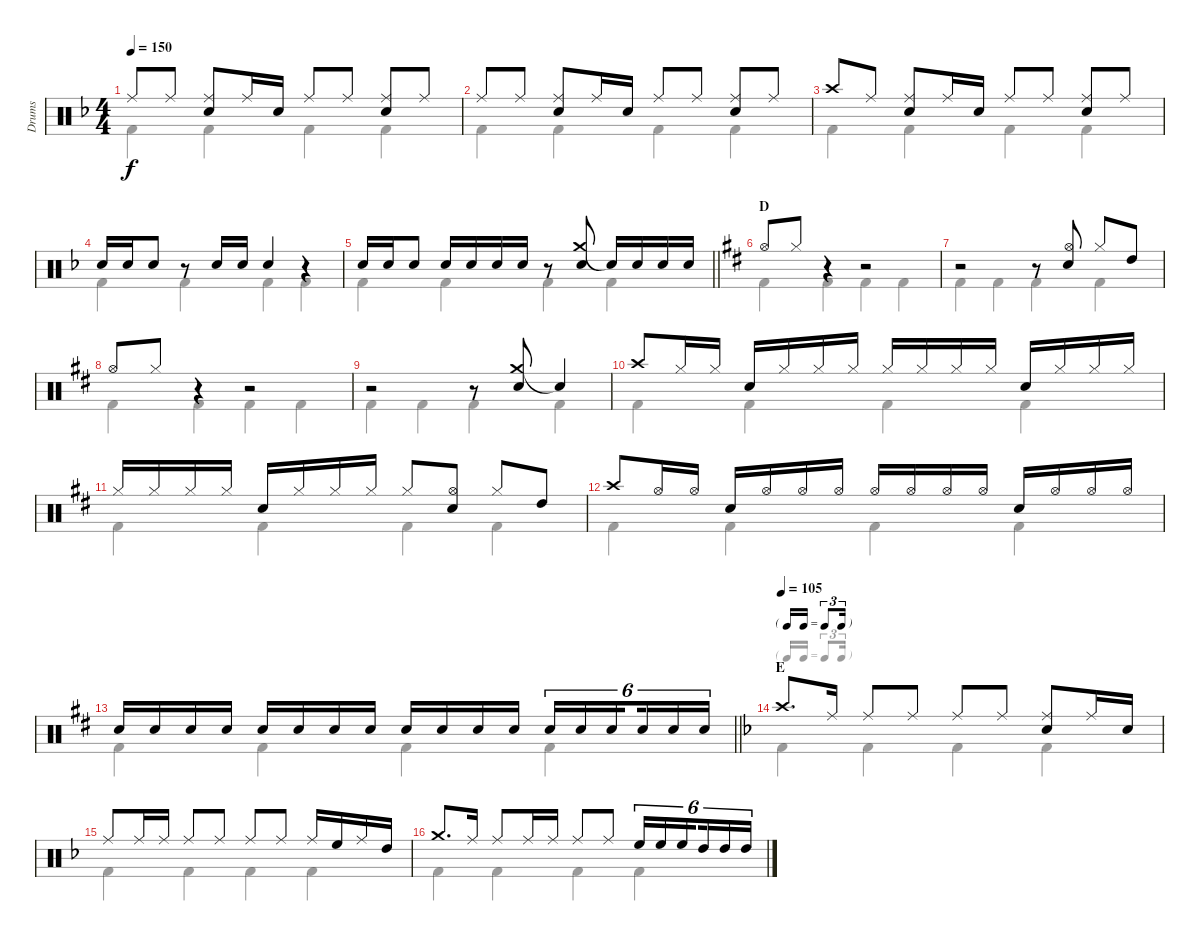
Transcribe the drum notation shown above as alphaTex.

\track ("Drums" "Drums") {instrument percussion}
\staff {score}
\articulation defaults
\voice
\ts (4 4)
\tempo 150
\clef neutral
\ks f "Ride (middle)".8{dy f} "Ride (middle)".8
("Ride (middle)" "Snare (hit) 2").8 "Ride (middle)".16 "Snare (hit) 2".16 "Ride (middle)".8 "Ride (middle)".8 ("Ride (middle)" "Snare (hit) 2").8 "Ride (middle)".8 |
"Ride (middle)".8 "Ride (middle)".8 ("Ride (middle)" "Snare (hit) 2").8 "Ride (middle)".16 "Snare (hit) 2".16 "Ride (middle)".8 "Ride (middle)".8 ("Ride (middle)" "Snare (hit) 2").8 "Ride (middle)".8 |
"Crash high (hit)".8 "Ride (middle)".8 ("Ride (middle)" "Snare (hit) 2").8 "Ride (middle)".16 "Snare (hit) 2".16 "Ride (middle)".8 "Ride (middle)".8 ("Ride (middle)" "Snare (hit) 2").8 "Ride (middle)".8 |
"Snare (hit) 2".16 "Snare (hit) 2".16 "Snare (hit) 2".8 r.8 "Snare (hit) 2".16 "Snare (hit) 2".16 "Snare (hit) 2".4 r.4 |
\barLineRight lightlight "Snare (hit) 2".16 "Snare (hit) 2".16 "Snare (hit) 2".8 "Snare (hit) 2".16 "Snare (hit) 2".16 "Snare (hit) 2".16 "Snare (hit) 2".16
r.8 ("Crash medium (hit)" "Snare (hit) 2").8 "Snare (hit)"{t}.16 "Snare (hit) 2".16 "Snare (hit) 2".16 "Snare (hit) 2".16 |
\section ("" "D")
\ks d "Hi-Hat (open)".8 "Hi-Hat (closed)".8
r.4 r.2 |
r.2 r.8 ("Hi-Hat (open)" "Snare (hit) 2").8 "Hi-Hat (closed)".8 "High Tom (hit)".8 |
"Hi-Hat (open)".8 "Hi-Hat (closed)".8 r.4 r.2 |
r.2 r.8 ("Crash medium (hit)" "Snare (hit) 2").8 "Snare (hit)"{t}.4 |
"Crash high (hit)".8 "Hi-Hat (closed)".16 "Hi-Hat (closed)".16 "Snare (hit) 2".16 "Hi-Hat (closed)".16 "Hi-Hat (closed)".16 "Hi-Hat (closed)".16 "Hi-Hat (closed)".16 "Hi-Hat (closed)".16 "Hi-Hat (closed)".16 "Hi-Hat (closed)".16 "Snare (hit) 2".16 "Hi-Hat (closed)".16 "Hi-Hat (closed)".16 "Hi-Hat (closed)".16 |
"Hi-Hat (closed)".16 "Hi-Hat (closed)".16 "Hi-Hat (closed)".16 "Hi-Hat (closed)".16 "Snare (hit) 2".16 "Hi-Hat (closed)".16 "Hi-Hat (closed)".16 "Hi-Hat (closed)".16 "Hi-Hat (closed)".8 ("Hi-Hat (open)" "Snare (hit) 2").8 "Hi-Hat (closed)".8 "High Tom (hit)".8 |
"Crash high (hit)".8 "Hi-Hat (open)".16 "Hi-Hat (open)".16 "Snare (hit) 2".16 "Hi-Hat (open)".16 "Hi-Hat (open)".16 "Hi-Hat (open)".16 "Hi-Hat (open)".16 "Hi-Hat (open)".16 "Hi-Hat (open)".16 "Hi-Hat (open)".16 "Snare (hit) 2".16 "Hi-Hat (open)".16 "Hi-Hat (open)".16 "Hi-Hat (open)".16 |
\barLineRight lightlight "Snare (hit) 2".16 "Snare (hit) 2".16 "Snare (hit) 2".16 "Snare (hit) 2".16 "Snare (hit) 2".16 "Snare (hit) 2".16 "Snare (hit) 2".16 "Snare (hit) 2".16 "Snare (hit) 2".16 "Snare (hit) 2".16 "Snare (hit) 2".16 "Snare (hit) 2".16 "Snare (hit) 2".16{tu (6 4)} "Snare (hit) 2".16{tu (6 4)} "Snare (hit) 2".16{tu (6 4) beam splitsecondary} "Snare (hit) 2".16{tu (6 4)} "Snare (hit) 2".16{tu (6 4)} "Snare (hit) 2".16{tu (6 4)}
|
\tf triplet16th
\section ("" "E")
\tempo 105
\ks f "Crash high (hit)".8{d} "Ride (middle)".16 "Ride (middle)".8 "Ride (middle)".8 "Ride (middle)".8 "Ride (middle)".8
("Ride (middle)" "Snare (hit) 2").8 "Ride (middle)".16 "Snare (hit) 2".16 |
"Ride (middle)".8 "Ride (middle)".16 "Ride (middle)".16 "Ride (middle)".8 "Ride (middle)".8 "Ride (middle)".8 "Ride (middle)".8 "Ride (middle)".16 "High Floor Tom (hit)".16 "Ride (middle)".16 "High Tom (hit)".16 |
"Crash medium (hit)".8{d} "Ride (middle)".16 "Ride (middle)".8 "Ride (middle)".16 "Ride (middle)".16 "Ride (middle)".8 "Ride (middle)".8 "High Floor Tom (hit)".16{tu (6 4)} "High Floor Tom (hit)".16{tu (6 4)} "High Floor Tom (hit)".16{tu (6 4) beam splitsecondary} "High Tom (hit)".16{tu (6 4)} "High Tom (hit)".16{tu (6 4)} "High Tom (hit)".16{tu (6 4)}
\voice
\clef neutral
\ottava regular
\simile none
\ks f "Kick (hit) 2".4{dy f} "Kick (hit) 2".4 "Kick (hit) 2".4 "Kick (hit) 2".4
|
"Kick (hit) 2".4 "Kick (hit) 2".4 "Kick (hit) 2".4 "Kick (hit) 2".4 |
"Kick (hit) 2".4 "Kick (hit) 2".4 "Kick (hit) 2".4 "Kick (hit) 2".4 |
"Kick (hit) 2".4 "Kick (hit) 2".4 "Kick (hit) 2".4 "Kick (hit) 2".4 |
\barLineRight lightlight "Kick (hit) 2".4 "Kick (hit) 2".4 "Kick (hit) 2".4 "Kick (hit) 2".4
|
\ks d "Kick (hit) 2".4 "Kick (hit) 2".4 "Kick (hit) 2".4 "Kick (hit) 2".4
|
"Kick (hit) 2".4 "Kick (hit) 2".4 "Kick (hit) 2".4 "Kick (hit) 2".4 |
"Kick (hit) 2".4 "Kick (hit) 2".4 "Kick (hit) 2".4 "Kick (hit) 2".4 |
"Kick (hit) 2".4 "Kick (hit) 2".4 "Kick (hit) 2".4 "Kick (hit) 2".4 |
"Kick (hit) 2".4 "Kick (hit) 2".4 "Kick (hit) 2".4 "Kick (hit) 2".4 |
"Kick (hit) 2".4 "Kick (hit) 2".4 "Kick (hit) 2".4 "Kick (hit) 2".4 |
"Kick (hit) 2".4 "Kick (hit) 2".4 "Kick (hit) 2".4 "Kick (hit) 2".4 |
\barLineRight lightlight "Kick (hit) 2".4 "Kick (hit) 2".4 "Kick (hit) 2".4 "Kick (hit) 2".4
|
\ks f "Kick (hit) 2".4 "Kick (hit) 2".4 "Kick (hit) 2".4 "Kick (hit) 2".4
|
"Kick (hit) 2".4 "Kick (hit) 2".4 "Kick (hit) 2".4 "Kick (hit) 2".4 |
"Kick (hit) 2".4 "Kick (hit) 2".4 "Kick (hit) 2".4 "Kick (hit) 2".4
